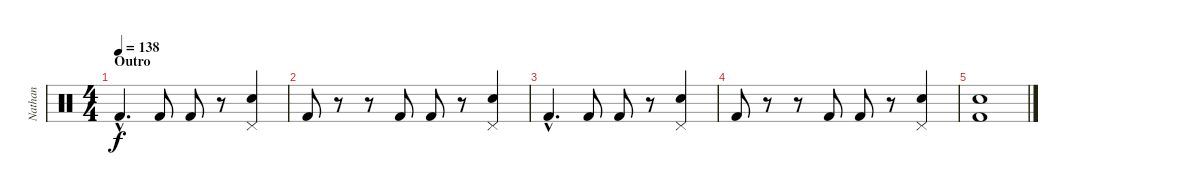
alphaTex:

\track ("Nathan" "Nathan") {instrument percussion}
\staff {score}
\articulation defaults
\ts (4 4)
\section ("" "Outro")
\tempo 138
\clef neutral
\ks c "Kick (hit) 2"{hac}.4{d dy f} "Kick (hit) 2".8 "Kick (hit) 2".8
r.8 ("Pedal Hi-Hat (hit)" "Electric Snare (hit)").4 |
"Kick (hit) 2".8 r.8 r.8 "Kick (hit) 2".8 "Kick (hit) 2".8 r.8 ("Pedal Hi-Hat (hit)" "Electric Snare (hit)").4 |
"Kick (hit) 2"{hac}.4{d} "Kick (hit) 2".8 "Kick (hit) 2".8 r.8 ("Pedal Hi-Hat (hit)" "Electric Snare (hit)").4 |
"Kick (hit) 2".8 r.8 r.8 "Kick (hit) 2".8 "Kick (hit) 2".8 r.8 ("Pedal Hi-Hat (hit)" "Electric Snare (hit)").4 |
("Electric Snare (hit)" "Kick (hit) 2").1
